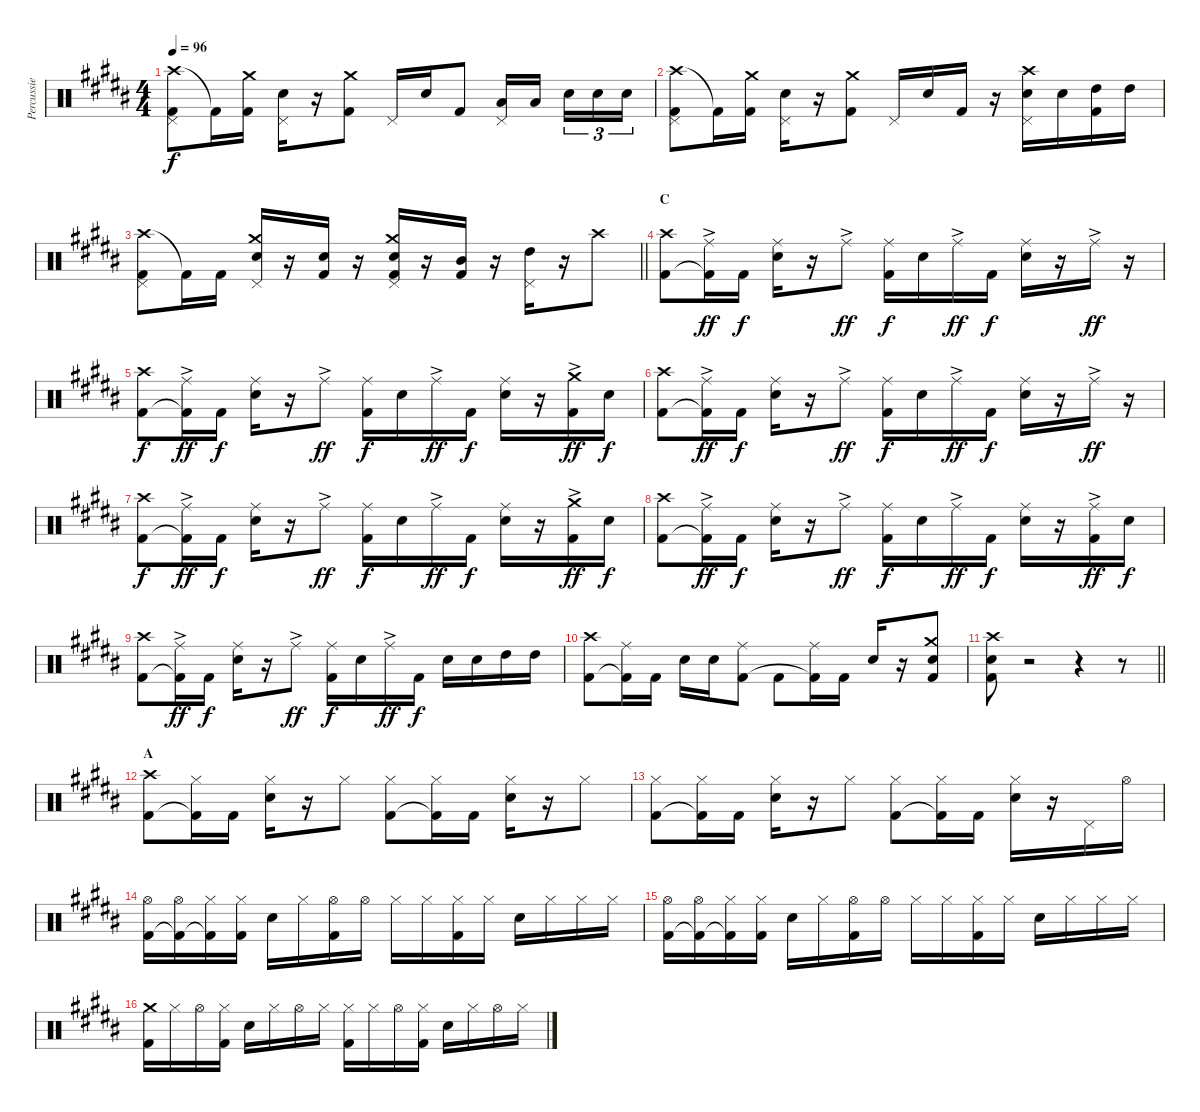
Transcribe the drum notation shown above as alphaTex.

\track ("Percussie" "Percussie") {instrument percussion}
\staff {score}
\articulation defaults
\ts (4 4)
\tempo 96
\clef neutral
\ks b
("Crash high (hit)" "Kick (hit) 2" "Pedal Hi-Hat (hit)").8{dy f} "Kick (hit) 2"{t}.16 ("Crash medium (hit)" "Kick (hit) 2").16 ("Electric Snare (hit)" "Pedal Hi-Hat (hit)").16 r.16 ("Crash medium (hit)" "Kick (hit) 2").8 "Pedal Hi-Hat (hit)".16 "Electric Snare (hit)".16 "Kick (hit) 2".8 ("Low Tom (hit)" "Pedal Hi-Hat (hit)").16 "Low Tom (hit)".16{beam splitsecondary} "Electric Snare (hit)".16{tu (3 2)} "Electric Snare (hit)".16{tu (3 2)} "Electric Snare (hit)".16{tu (3 2)} |
("Crash high (hit)" "Kick (hit) 2" "Pedal Hi-Hat (hit)").8 "Kick (hit) 2"{t}.16 ("Crash medium (hit)" "Kick (hit) 2").16 ("Electric Snare (hit)" "Pedal Hi-Hat (hit)").16 r.16 ("Crash medium (hit)" "Kick (hit) 2").8 "Pedal Hi-Hat (hit)".16 "Electric Snare (hit)".16 "Kick (hit) 2".16 r.16 ("Crash high (hit)" "Electric Snare (hit)" "Pedal Hi-Hat (hit)").16 "Electric Snare (hit)".16 ("High Tom (hit)" "Kick (hit) 2").16 "High Tom (hit)".16 |
\barLineRight lightlight
("Crash high (hit)" "Kick (hit) 2" "Pedal Hi-Hat (hit)").8 "Kick (hit) 2"{t}.16 "Kick (hit) 2".16 ("Crash medium (hit)" "Electric Snare (hit)" "Pedal Hi-Hat (hit)").16 r.16 ("Electric Snare (hit)" "Kick (hit) 2").16 r.16 ("Crash medium (hit)" "Electric Snare (hit)" "Kick (hit) 2" "Pedal Hi-Hat (hit)").16 r.16 ("Mid Tom (hit)" "Kick (hit) 2").16 r.16 ("High Tom (hit)" "Pedal Hi-Hat (hit)").16 r.16 "Crash high (hit)".8 |
\section ("" "C")
("Crash high (hit)" "Kick (hit) 2").8 ("Ride (middle)"{ac} "Kick (hit) 2"{t}).16{dy ff} "Kick (hit) 2".16{dy f} ("Ride (middle)" "Electric Snare (hit)").16 r.16 "Ride (middle)"{ac}.8{dy ff} ("Ride (middle)" "Kick (hit) 2").16{dy f} "Electric Snare (hit)".16 "Ride (middle)"{ac}.16{dy ff} "Kick (hit) 2".16{dy f} ("Ride (middle)" "Electric Snare (hit)").16 r.16 "Ride (middle)"{ac}.16{dy ff} r.16 |
("Crash high (hit)" "Kick (hit) 2").8{dy f} ("Ride (middle)"{ac} "Kick (hit) 2"{t}).16{dy ff} "Kick (hit) 2".16{dy f} ("Ride (middle)" "Electric Snare (hit)").16 r.16 "Ride (middle)"{ac}.8{dy ff} ("Ride (middle)" "Kick (hit) 2").16{dy f} "Electric Snare (hit)".16 "Ride (middle)"{ac}.16{dy ff} "Kick (hit) 2".16{dy f} ("Ride (middle)" "Electric Snare (hit)").16 r.16 ("Crash medium (hit)"{ac} "Kick (hit) 2").16{dy ff} "Electric Snare (hit)".16{dy f} |
("Crash high (hit)" "Kick (hit) 2").8 ("Ride (middle)"{ac} "Kick (hit) 2"{t}).16{dy ff} "Kick (hit) 2".16{dy f} ("Ride (middle)" "Electric Snare (hit)").16 r.16 "Ride (middle)"{ac}.8{dy ff} ("Ride (middle)" "Kick (hit) 2").16{dy f} "Electric Snare (hit)".16 "Ride (middle)"{ac}.16{dy ff} "Kick (hit) 2".16{dy f} ("Ride (middle)" "Electric Snare (hit)").16 r.16 "Ride (middle)"{ac}.16{dy ff} r.16 |
("Crash high (hit)" "Kick (hit) 2").8{dy f} ("Ride (middle)"{ac} "Kick (hit) 2"{t}).16{dy ff} "Kick (hit) 2".16{dy f} ("Ride (middle)" "Electric Snare (hit)").16 r.16 "Ride (middle)"{ac}.8{dy ff} ("Ride (middle)" "Kick (hit) 2").16{dy f} "Electric Snare (hit)".16 "Ride (middle)"{ac}.16{dy ff} "Kick (hit) 2".16{dy f} ("Ride (middle)" "Electric Snare (hit)").16 r.16 ("Crash medium (hit)"{ac} "Kick (hit) 2").16{dy ff} "Electric Snare (hit)".16{dy f} |
("Crash high (hit)" "Kick (hit) 2").8 ("Ride (middle)"{ac} "Kick (hit) 2"{t}).16{dy ff} "Kick (hit) 2".16{dy f} ("Ride (middle)" "Electric Snare (hit)").16 r.16 "Ride (middle)"{ac}.8{dy ff} ("Ride (middle)" "Kick (hit) 2").16{dy f} "Electric Snare (hit)".16 "Ride (middle)"{ac}.16{dy ff} "Kick (hit) 2".16{dy f} ("Ride (middle)" "Electric Snare (hit)").16 r.16 ("Ride (middle)"{ac} "Kick (hit) 2").16{dy ff} "Electric Snare (hit)".16{dy f} |
("Crash high (hit)" "Kick (hit) 2").8 ("Ride (middle)"{ac} "Kick (hit) 2"{t}).16{dy ff} "Kick (hit) 2".16{dy f} ("Ride (middle)" "Electric Snare (hit)").16 r.16 "Ride (middle)"{ac}.8{dy ff} ("Ride (middle)" "Kick (hit) 2").16{dy f} "Electric Snare (hit)".16 "Ride (middle)"{ac}.16{dy ff} "Kick (hit) 2".16{dy f} "Electric Snare (hit)".16 "Electric Snare (hit)".16 "High Tom (hit)".16 "High Tom (hit)".16 |
("Crash high (hit)" "Kick (hit) 2").8 ("Ride (middle)" "Kick (hit) 2"{t}).16 "Kick (hit) 2".16 "Electric Snare (hit)".16 "Electric Snare (hit)".16 ("Ride (middle)" "Kick (hit) 2").8 "Kick (hit) 2".8 ("Ride (middle)" "Kick (hit) 2"{t}).16 "Kick (hit) 2".16 "Electric Snare (hit)".16 r.16 ("Crash medium (hit)" "Electric Snare (hit)" "Kick (hit) 2").8 |
\barLineRight lightlight
("Crash high (hit)" "Electric Snare (hit)" "Kick (hit) 2").8 r.2 r.4 r.8 |
\section ("" "A")
("Crash high (hit)" "Kick (hit) 2").8 ("Hi-Hat (closed)" "Kick (hit) 2"{t}).16 "Kick (hit) 2".16 ("Hi-Hat (closed)" "Electric Snare (hit)").16 r.16 "Hi-Hat (closed)".8 ("Hi-Hat (closed)" "Kick (hit) 2").8 ("Hi-Hat (closed)" "Kick (hit) 2"{t}).16 "Kick (hit) 2".16 ("Hi-Hat (closed)" "Electric Snare (hit)").16 r.16 "Hi-Hat (closed)".8 |
("Hi-Hat (closed)" "Kick (hit) 2").8 ("Hi-Hat (closed)" "Kick (hit) 2"{t}).16 "Kick (hit) 2".16 ("Hi-Hat (closed)" "Electric Snare (hit)").16 r.16 "Hi-Hat (closed)".8 ("Hi-Hat (closed)" "Kick (hit) 2").8 ("Hi-Hat (closed)" "Kick (hit) 2"{t}).16 "Kick (hit) 2".16 ("Hi-Hat (closed)" "Electric Snare (hit)").16 r.16 "Pedal Hi-Hat (hit)".16 "Hi-Hat (open)".16 |
("Hi-Hat (open)" "Kick (hit) 2").16 ("Hi-Hat (open)" "Kick (hit) 2"{t}).16 ("Hi-Hat (closed)" "Kick (hit) 2"{t}).16 ("Hi-Hat (closed)" "Kick (hit) 2").16 "Electric Snare (hit)".16 "Hi-Hat (closed)".16 ("Hi-Hat (open)" "Kick (hit) 2").16 "Hi-Hat (open)".16 "Hi-Hat (closed)".16 "Hi-Hat (closed)".16 ("Hi-Hat (closed)" "Kick (hit) 2").16 "Hi-Hat (closed)".16 "Electric Snare (hit)".16 "Hi-Hat (closed)".16 "Hi-Hat (closed)".16 "Hi-Hat (closed)".16 |
("Hi-Hat (open)" "Kick (hit) 2").16 ("Hi-Hat (open)" "Kick (hit) 2"{t}).16 ("Hi-Hat (closed)" "Kick (hit) 2"{t}).16 ("Hi-Hat (closed)" "Kick (hit) 2").16 "Electric Snare (hit)".16 "Hi-Hat (closed)".16 ("Hi-Hat (open)" "Kick (hit) 2").16 "Hi-Hat (open)".16 "Hi-Hat (closed)".16 "Hi-Hat (closed)".16 ("Hi-Hat (closed)" "Kick (hit) 2").16 "Hi-Hat (closed)".16 "Electric Snare (hit)".16 "Hi-Hat (closed)".16 "Hi-Hat (closed)".16 "Hi-Hat (closed)".16 |
("Crash medium (hit)" "Kick (hit) 2").16 "Hi-Hat (closed)".16 "Hi-Hat (open)".16 ("Hi-Hat (closed)" "Kick (hit) 2").16 "Electric Snare (hit)".16 "Hi-Hat (closed)".16 "Hi-Hat (open)".16 "Hi-Hat (closed)".16 ("Hi-Hat (closed)" "Kick (hit) 2").16 "Hi-Hat (closed)".16 "Hi-Hat (open)".16 ("Hi-Hat (closed)" "Kick (hit) 2").16 "Electric Snare (hit)".16 "Hi-Hat (closed)".16 "Hi-Hat (open)".16 "Hi-Hat (closed)".16
